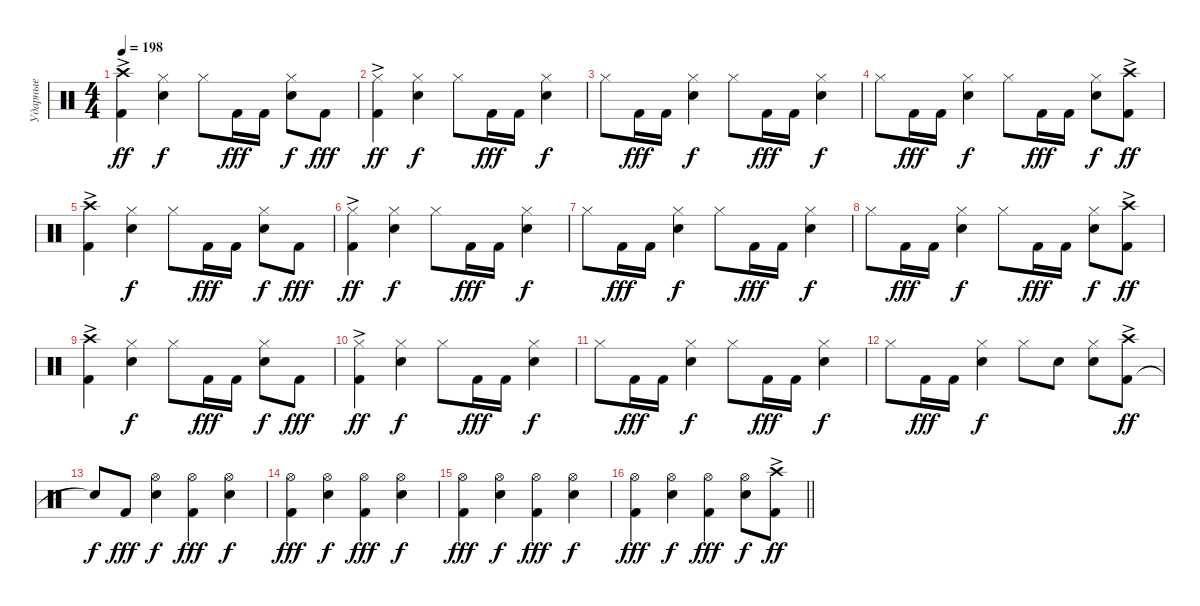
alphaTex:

\track ("Ударные" "Ударные") {instrument percussion}
\staff {score}
\articulation defaults
\ts (4 4)
\tempo 198
\clef neutral
\ks c
("Kick (hit) 2" "Crash high (hit)"{ac}).4{dy ff} ("Snare (hit) 2" "Hi-Hat (closed)").4{dy f} "Hi-Hat (closed)".8 "Kick (hit) 2".16{dy fff} "Kick (hit) 2".16 ("Snare (hit) 2" "Hi-Hat (closed)").8{dy f} "Kick (hit) 2".8{dy fff} |
("Kick (hit) 2" "Hi-Hat (closed)"{ac}).4{dy ff} ("Snare (hit) 2" "Hi-Hat (closed)").4{dy f} "Hi-Hat (closed)".8 "Kick (hit) 2".16{dy fff} "Kick (hit) 2".16 ("Snare (hit) 2" "Hi-Hat (closed)").4{dy f} |
"Hi-Hat (closed)".8 "Kick (hit) 2".16{dy fff} "Kick (hit) 2".16 ("Snare (hit) 2" "Hi-Hat (closed)").4{dy f} "Hi-Hat (closed)".8 "Kick (hit) 2".16{dy fff} "Kick (hit) 2".16 ("Snare (hit) 2" "Hi-Hat (closed)").4{dy f} |
"Hi-Hat (closed)".8 "Kick (hit) 2".16{dy fff} "Kick (hit) 2".16 ("Snare (hit) 2" "Hi-Hat (closed)").4{dy f} "Hi-Hat (closed)".8 "Kick (hit) 2".16{dy fff} "Kick (hit) 2".16 ("Snare (hit) 2" "Hi-Hat (closed)").8{dy f} ("Kick (hit) 2" "Crash high (hit)"{ac}).8{dy ff} |
("Kick (hit) 2" "Crash high (hit)"{ac}).4 ("Snare (hit) 2" "Hi-Hat (closed)").4{dy f} "Hi-Hat (closed)".8 "Kick (hit) 2".16{dy fff} "Kick (hit) 2".16 ("Snare (hit) 2" "Hi-Hat (closed)").8{dy f} "Kick (hit) 2".8{dy fff} |
("Kick (hit) 2" "Hi-Hat (closed)"{ac}).4{dy ff} ("Snare (hit) 2" "Hi-Hat (closed)").4{dy f} "Hi-Hat (closed)".8 "Kick (hit) 2".16{dy fff} "Kick (hit) 2".16 ("Snare (hit) 2" "Hi-Hat (closed)").4{dy f} |
"Hi-Hat (closed)".8 "Kick (hit) 2".16{dy fff} "Kick (hit) 2".16 ("Snare (hit) 2" "Hi-Hat (closed)").4{dy f} "Hi-Hat (closed)".8 "Kick (hit) 2".16{dy fff} "Kick (hit) 2".16 ("Snare (hit) 2" "Hi-Hat (closed)").4{dy f} |
"Hi-Hat (closed)".8 "Kick (hit) 2".16{dy fff} "Kick (hit) 2".16 ("Snare (hit) 2" "Hi-Hat (closed)").4{dy f} "Hi-Hat (closed)".8 "Kick (hit) 2".16{dy fff} "Kick (hit) 2".16 ("Snare (hit) 2" "Hi-Hat (closed)").8{dy f} ("Kick (hit) 2" "Crash high (hit)"{ac}).8{dy ff} |
("Kick (hit) 2" "Crash high (hit)"{ac}).4 ("Snare (hit) 2" "Hi-Hat (closed)").4{dy f} "Hi-Hat (closed)".8 "Kick (hit) 2".16{dy fff} "Kick (hit) 2".16 ("Snare (hit) 2" "Hi-Hat (closed)").8{dy f} "Kick (hit) 2".8{dy fff} |
("Kick (hit) 2" "Hi-Hat (closed)"{ac}).4{dy ff} ("Snare (hit) 2" "Hi-Hat (closed)").4{dy f} "Hi-Hat (closed)".8 "Kick (hit) 2".16{dy fff} "Kick (hit) 2".16 ("Snare (hit) 2" "Hi-Hat (closed)").4{dy f} |
"Hi-Hat (closed)".8 "Kick (hit) 2".16{dy fff} "Kick (hit) 2".16 ("Snare (hit) 2" "Hi-Hat (closed)").4{dy f} "Hi-Hat (closed)".8 "Kick (hit) 2".16{dy fff} "Kick (hit) 2".16 ("Snare (hit) 2" "Hi-Hat (closed)").4{dy f} |
"Hi-Hat (closed)".8 "Kick (hit) 2".16{dy fff} "Kick (hit) 2".16 ("Snare (hit) 2" "Hi-Hat (closed)").4{dy f} "Hi-Hat (closed)".8 "Snare (hit) 2".8 ("Snare (hit) 2" "Hi-Hat (closed)").8 ("Kick (hit) 2" "Crash high (hit)"{ac}).8{dy ff} |
"Snare (hit)"{t}.8{dy f} "Kick (hit) 2".8{dy fff} ("Snare (hit) 2" "Hi-Hat (open)").4{dy f} ("Kick (hit) 2" "Hi-Hat (open)").4{dy fff} ("Snare (hit) 2" "Hi-Hat (open)").4{dy f} |
("Kick (hit) 2" "Hi-Hat (open)").4{dy fff} ("Snare (hit) 2" "Hi-Hat (open)").4{dy f} ("Kick (hit) 2" "Hi-Hat (open)").4{dy fff} ("Snare (hit) 2" "Hi-Hat (open)").4{dy f} |
("Kick (hit) 2" "Hi-Hat (open)").4{dy fff} ("Snare (hit) 2" "Hi-Hat (open)").4{dy f} ("Kick (hit) 2" "Hi-Hat (open)").4{dy fff} ("Snare (hit) 2" "Hi-Hat (open)").4{dy f} |
\barLineRight lightlight
("Kick (hit) 2" "Hi-Hat (open)").4{dy fff} ("Snare (hit) 2" "Hi-Hat (open)").4{dy f} ("Kick (hit) 2" "Hi-Hat (open)").4{dy fff} ("Snare (hit) 2" "Hi-Hat (open)").8{dy f} ("Kick (hit) 2" "Crash high (hit)"{ac}).8{dy ff}
